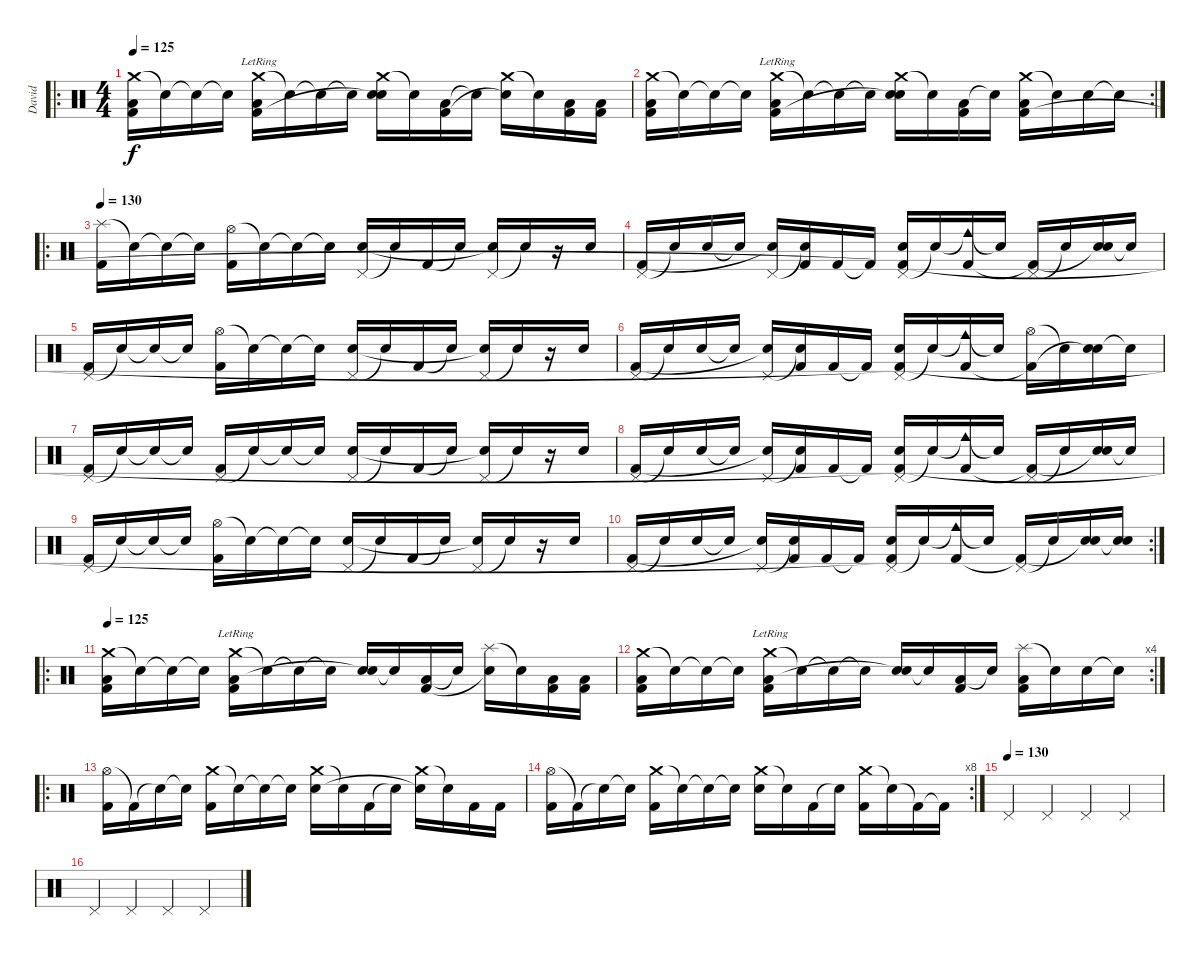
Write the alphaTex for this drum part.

\track ("David" "David") {instrument percussion}
\staff {score}
\articulation defaults
\ro
\ts (4 4)
\tempo 125
\clef neutral
\ks c
("Crash medium (hit)" "Low Floor Tom (hit)" "Kick (hit) 2").16{dy f} "Snare (hit)"{t}.16 "Snare (hit)"{t}.16 "Snare (hit)"{t}.16 ("Crash medium (hit)"{lr} "Low Floor Tom (hit)" "Kick (hit) 2").16 "Snare (hit)"{t}.16 "Snare (hit)"{t}.16 "Snare (hit)"{t}.16 ("Crash medium (hit)" "Electric Snare (hit)" "Snare (hit)"{t}).16 "Snare (hit)"{t}.16 ("Low Floor Tom (hit)" "Kick (hit) 2").16 "Snare (hit)"{t}.16 ("Crash medium (hit)" "Snare (hit)"{t}).16 "Snare (hit)"{t}.16 ("Low Floor Tom (hit)" "Kick (hit) 2").16 ("Low Floor Tom (hit)" "Kick (hit) 2").16 |
\rc 2
("Crash medium (hit)" "Low Floor Tom (hit)" "Kick (hit) 2").16 "Snare (hit)"{t}.16 "Snare (hit)"{t}.16 "Snare (hit)"{t}.16 ("Crash medium (hit)"{lr} "Low Floor Tom (hit)" "Kick (hit) 2").16 "Snare (hit)"{t}.16 "Snare (hit)"{t}.16 "Snare (hit)"{t}.16 ("Crash medium (hit)" "Electric Snare (hit)" "Snare (hit)"{t}).16 "Snare (hit)"{t}.16 ("Low Floor Tom (hit)" "Kick (hit) 2").16 "Snare (hit)"{t}.16 ("Crash medium (hit)" "Low Floor Tom (hit)" "Kick (hit) 2").16 "Snare (hit)"{t}.16 "Electric Snare (hit)".16 "Snare (hit)"{t}.16 |
\ro
\tempo 130
("Splash (hit)" "Kick (hit) 2").16 "Snare (hit)"{t}.16 "Snare (hit)"{t}.16 "Snare (hit)"{t}.16 ("Hi-Hat (open)" "Kick (hit) 2").16 "Snare (hit)"{t}.16 "Snare (hit)"{t}.16 "Snare (hit)"{t}.16 ("Pedal Hi-Hat (hit)" "Snare (hit) 2").16 "Snare (hit)"{t}.16 "Kick (hit) 2".16 "Snare (hit)"{t}.16 ("Pedal Hi-Hat (hit)" "Snare (hit)"{t}).16 "Snare (hit)"{t}.16 r.16 "Snare (hit) 2".16 |
("Pedal Hi-Hat (hit)" "Kick (hit) 2").16 "Snare (hit)"{t}.16 "Snare (hit) 2".16 "Snare (hit)"{t}.16 ("Pedal Hi-Hat (hit)" "Snare (hit)"{t}).16 ("Snare (hit)"{t} "Kick (hit) 2").16 "Kick (hit) 2".16 "Kick (hit) 2"{t}.16 ("Pedal Hi-Hat (hit)" "Snare (hit) 2" "Kick (hit) 2"{t}).16 "Snare (hit)"{t}.16 ("Cowbell medium (hit)"{t} "Kick (hit) 2").16 "Snare (hit)"{t}.16 ("Pedal Hi-Hat (hit)" "Kick (hit) 2"{t}).16 "Snare (hit)"{t}.16 ("Snare (hit) 2" "Snare (hit)"{t}).16 "Snare (hit)"{t}.16 |
("Pedal Hi-Hat (hit)" "Kick (hit) 2").16 "Snare (hit)"{t}.16 "Snare (hit)"{t}.16 "Snare (hit)"{t}.16 ("Hi-Hat (open)" "Kick (hit) 2").16 "Snare (hit)"{t}.16 "Snare (hit)"{t}.16 "Snare (hit)"{t}.16 ("Pedal Hi-Hat (hit)" "Snare (hit) 2").16 "Snare (hit)"{t}.16 "Kick (hit) 2".16 "Snare (hit)"{t}.16 ("Pedal Hi-Hat (hit)" "Snare (hit)"{t}).16 "Snare (hit)"{t}.16 r.16 "Snare (hit) 2".16 |
("Pedal Hi-Hat (hit)" "Kick (hit) 2").16 "Snare (hit)"{t}.16 "Snare (hit) 2".16 "Snare (hit)"{t}.16 ("Pedal Hi-Hat (hit)" "Snare (hit)"{t}).16 ("Snare (hit)"{t} "Kick (hit) 2").16 "Kick (hit) 2".16 "Kick (hit) 2"{t}.16 ("Pedal Hi-Hat (hit)" "Snare (hit) 2" "Kick (hit) 2"{t}).16 "Snare (hit)"{t}.16 ("Cowbell medium (hit)"{t} "Kick (hit) 2").16 "Snare (hit)"{t}.16 ("Hi-Hat (open)" "Kick (hit) 2"{t}).16 "Snare (hit)"{t}.16 ("Snare (hit) 2" "Snare (hit)"{t}).16 "Snare (hit)"{t}.16 |
("Pedal Hi-Hat (hit)" "Kick (hit) 2").16 "Snare (hit)"{t}.16 "Snare (hit)"{t}.16 "Snare (hit)"{t}.16 ("Pedal Hi-Hat (hit)" "Kick (hit) 2").16 "Snare (hit)"{t}.16 "Snare (hit)"{t}.16 "Snare (hit)"{t}.16 ("Pedal Hi-Hat (hit)" "Snare (hit) 2").16 "Snare (hit)"{t}.16 "Kick (hit) 2".16 "Snare (hit)"{t}.16 ("Pedal Hi-Hat (hit)" "Snare (hit)"{t}).16 "Snare (hit)"{t}.16 r.16 "Snare (hit) 2".16 |
("Pedal Hi-Hat (hit)" "Kick (hit) 2").16 "Snare (hit)"{t}.16 "Snare (hit) 2".16 "Snare (hit)"{t}.16 ("Pedal Hi-Hat (hit)" "Snare (hit)"{t}).16 ("Snare (hit)"{t} "Kick (hit) 2").16 "Kick (hit) 2".16 "Kick (hit) 2"{t}.16 ("Pedal Hi-Hat (hit)" "Snare (hit) 2" "Kick (hit) 2"{t}).16 "Snare (hit)"{t}.16 ("Cowbell medium (hit)"{t} "Kick (hit) 2").16 "Snare (hit)"{t}.16 ("Pedal Hi-Hat (hit)" "Kick (hit) 2"{t}).16 "Snare (hit)"{t}.16 ("Snare (hit) 2" "Snare (hit)"{t}).16 "Snare (hit)"{t}.16 |
("Pedal Hi-Hat (hit)" "Kick (hit) 2").16 "Snare (hit)"{t}.16 "Snare (hit)"{t}.16 "Snare (hit)"{t}.16 ("Hi-Hat (open)" "Kick (hit) 2").16 "Snare (hit)"{t}.16 "Snare (hit)"{t}.16 "Snare (hit)"{t}.16 ("Pedal Hi-Hat (hit)" "Snare (hit) 2").16 "Snare (hit)"{t}.16 "Kick (hit) 2".16 "Snare (hit)"{t}.16 ("Pedal Hi-Hat (hit)" "Snare (hit)"{t}).16 "Snare (hit)"{t}.16 r.16 "Snare (hit) 2".16 |
\rc 2
("Pedal Hi-Hat (hit)" "Kick (hit) 2").16 "Snare (hit)"{t}.16 "Snare (hit) 2".16 "Snare (hit)"{t}.16 ("Pedal Hi-Hat (hit)" "Snare (hit)"{t}).16 ("Snare (hit)"{t} "Kick (hit) 2").16 "Kick (hit) 2".16 "Kick (hit) 2"{t}.16 ("Pedal Hi-Hat (hit)" "Snare (hit) 2" "Kick (hit) 2"{t}).16 "Snare (hit)"{t}.16 ("Cowbell medium (hit)"{t} "Kick (hit) 2").16 "Snare (hit)"{t}.16 ("Pedal Hi-Hat (hit)" "Kick (hit) 2"{t}).16 "Snare (hit)"{t}.16 ("Snare (hit) 2" "Snare (hit)"{t}).16 ("Snare (hit) 2" "Snare (hit)"{t}).16 |
\ro
\tempo 125
("Crash medium (hit)" "Low Floor Tom (hit)" "Kick (hit) 2").16 "Snare (hit)"{t}.16 "Snare (hit)"{t}.16 "Snare (hit)"{t}.16 ("Crash medium (hit)"{lr} "Low Floor Tom (hit)" "Kick (hit) 2").16 "Snare (hit)"{t}.16 "Snare (hit)"{t}.16 "Snare (hit)"{t}.16 ("Electric Snare (hit)" "Snare (hit)"{t}).16 "Snare (hit)"{t}.16 ("Low Floor Tom (hit)" "Kick (hit) 2").16 "Snare (hit)"{t}.16 ("Splash (hit)" "Snare (hit)"{t}).16 "Snare (hit)"{t}.16 ("Low Floor Tom (hit)" "Kick (hit) 2").16 ("Low Floor Tom (hit)" "Kick (hit) 2").16 |
\rc 4
("Crash medium (hit)" "Low Floor Tom (hit)" "Kick (hit) 2").16 "Snare (hit)"{t}.16 "Snare (hit)"{t}.16 "Snare (hit)"{t}.16 ("Crash medium (hit)"{lr} "Low Floor Tom (hit)" "Kick (hit) 2").16 "Snare (hit)"{t}.16 "Snare (hit)"{t}.16 "Snare (hit)"{t}.16 ("Electric Snare (hit)" "Snare (hit)"{t}).16 "Snare (hit)"{t}.16 ("Low Floor Tom (hit)" "Kick (hit) 2").16 "Snare (hit)"{t}.16 ("Splash (hit)" "Low Floor Tom (hit)" "Kick (hit) 2").16 "Snare (hit)"{t}.16 "Electric Snare (hit)".16 "Snare (hit)"{t}.16 |
\ro
("Hi-Hat (open)" "Kick (hit) 2").16 "Kick (hit) 2"{t}.16 "Snare (hit)"{t}.16 "Snare (hit)"{t}.16 ("Crash medium (hit)" "Kick (hit) 2").16 "Snare (hit)"{t}.16 "Snare (hit)"{t}.16 "Snare (hit)"{t}.16 ("Crash medium (hit)" "Electric Snare (hit)").16 "Snare (hit)"{t}.16 "Kick (hit) 2".16 "Snare (hit)"{t}.16 ("Crash medium (hit)" "Snare (hit)"{t}).16 "Snare (hit)"{t}.16 "Kick (hit) 2".16 "Kick (hit) 2".16 |
\rc 8
("Hi-Hat (open)" "Kick (hit) 2").16 "Kick (hit) 2"{t}.16 "Snare (hit)"{t}.16 "Snare (hit)"{t}.16 ("Crash medium (hit)" "Kick (hit) 2").16 "Snare (hit)"{t}.16 "Snare (hit)"{t}.16 "Snare (hit)"{t}.16 ("Crash medium (hit)" "Electric Snare (hit)").16 "Snare (hit)"{t}.16 "Kick (hit) 2".16 "Snare (hit)"{t}.16 ("Crash medium (hit)" "Kick (hit) 2").16 "Snare (hit)"{t}.16 "Kick (hit) 2"{t}.16 "Kick (hit) 2"{t}.16 |
\tempo (130)
"Pedal Hi-Hat (hit)".4 "Pedal Hi-Hat (hit)".4 "Pedal Hi-Hat (hit)".4 "Pedal Hi-Hat (hit)".4 |
"Pedal Hi-Hat (hit)".4 "Pedal Hi-Hat (hit)".4 "Pedal Hi-Hat (hit)".4 "Pedal Hi-Hat (hit)".4
